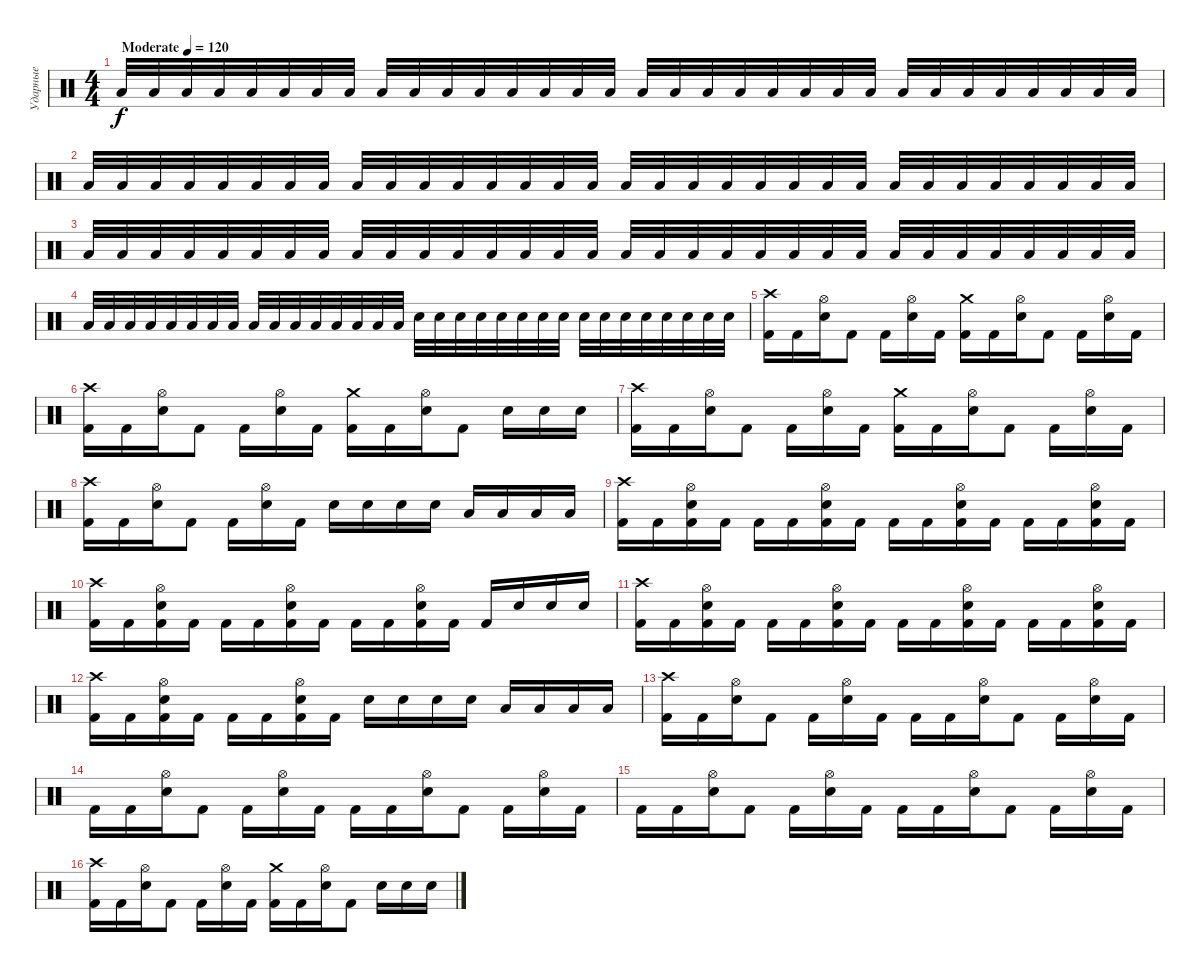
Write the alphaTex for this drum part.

\track ("Ударные" "Ударные") {instrument percussion}
\staff {score}
\articulation defaults
\ts (4 4)
\tempo (120 "Moderate")
\clef neutral
\ks c "Low Tom (hit)".32{dy f} "Low Tom (hit)".32 "Low Tom (hit)".32 "Low Tom (hit)".32 "Low Tom (hit)".32 "Low Tom (hit)".32 "Low Tom (hit)".32 "Low Tom (hit)".32 "Low Tom (hit)".32 "Low Tom (hit)".32 "Low Tom (hit)".32 "Low Tom (hit)".32 "Low Tom (hit)".32 "Low Tom (hit)".32 "Low Tom (hit)".32 "Low Tom (hit)".32 "Low Tom (hit)".32 "Low Tom (hit)".32 "Low Tom (hit)".32 "Low Tom (hit)".32 "Low Tom (hit)".32 "Low Tom (hit)".32 "Low Tom (hit)".32 "Low Tom (hit)".32 "Low Tom (hit)".32 "Low Tom (hit)".32 "Low Tom (hit)".32 "Low Tom (hit)".32 "Low Tom (hit)".32 "Low Tom (hit)".32 "Low Tom (hit)".32 "Low Tom (hit)".32
|
"Low Tom (hit)".32 "Low Tom (hit)".32 "Low Tom (hit)".32 "Low Tom (hit)".32 "Low Tom (hit)".32 "Low Tom (hit)".32 "Low Tom (hit)".32 "Low Tom (hit)".32 "Low Tom (hit)".32 "Low Tom (hit)".32 "Low Tom (hit)".32 "Low Tom (hit)".32 "Low Tom (hit)".32 "Low Tom (hit)".32 "Low Tom (hit)".32 "Low Tom (hit)".32 "Low Tom (hit)".32 "Low Tom (hit)".32 "Low Tom (hit)".32 "Low Tom (hit)".32 "Low Tom (hit)".32 "Low Tom (hit)".32 "Low Tom (hit)".32 "Low Tom (hit)".32 "Low Tom (hit)".32 "Low Tom (hit)".32 "Low Tom (hit)".32 "Low Tom (hit)".32 "Low Tom (hit)".32 "Low Tom (hit)".32 "Low Tom (hit)".32 "Low Tom (hit)".32 |
"Low Tom (hit)".32 "Low Tom (hit)".32 "Low Tom (hit)".32 "Low Tom (hit)".32 "Low Tom (hit)".32 "Low Tom (hit)".32 "Low Tom (hit)".32 "Low Tom (hit)".32 "Low Tom (hit)".32 "Low Tom (hit)".32 "Low Tom (hit)".32 "Low Tom (hit)".32 "Low Tom (hit)".32 "Low Tom (hit)".32 "Low Tom (hit)".32 "Low Tom (hit)".32 "Low Tom (hit)".32 "Low Tom (hit)".32 "Low Tom (hit)".32 "Low Tom (hit)".32 "Low Tom (hit)".32 "Low Tom (hit)".32 "Low Tom (hit)".32 "Low Tom (hit)".32 "Low Tom (hit)".32 "Low Tom (hit)".32 "Low Tom (hit)".32 "Low Tom (hit)".32 "Low Tom (hit)".32 "Low Tom (hit)".32 "Low Tom (hit)".32 "Low Tom (hit)".32 |
"Low Tom (hit)".32 "Low Tom (hit)".32 "Low Tom (hit)".32 "Low Tom (hit)".32 "Low Tom (hit)".32 "Low Tom (hit)".32 "Low Tom (hit)".32 "Low Tom (hit)".32 "Low Tom (hit)".32 "Low Tom (hit)".32 "Low Tom (hit)".32 "Low Tom (hit)".32 "Low Tom (hit)".32 "Low Tom (hit)".32 "Low Tom (hit)".32 "Low Tom (hit)".32 "Electric Snare (hit)".32 "Electric Snare (hit)".32 "Electric Snare (hit)".32 "Electric Snare (hit)".32 "Electric Snare (hit)".32 "Electric Snare (hit)".32 "Electric Snare (hit)".32 "Electric Snare (hit)".32 "Electric Snare (hit)".32 "Electric Snare (hit)".32 "Electric Snare (hit)".32 "Electric Snare (hit)".32 "Electric Snare (hit)".32 "Electric Snare (hit)".32 "Electric Snare (hit)".32 "Electric Snare (hit)".32 |
("Kick (hit) 2" "Crash high (hit)").16 "Kick (hit) 2".16 ("Electric Snare (hit)" "Hi-Hat (open)").16 "Kick (hit) 2".8 "Kick (hit) 2".16 ("Electric Snare (hit)" "Hi-Hat (open)").16 "Kick (hit) 2".16 ("Kick (hit) 2" "Crash medium (hit)").16 "Kick (hit) 2".16 ("Electric Snare (hit)" "Hi-Hat (open)").16 "Kick (hit) 2".8 "Kick (hit) 2".16 ("Electric Snare (hit)" "Hi-Hat (open)").16 "Kick (hit) 2".16 |
("Kick (hit) 2" "Crash high (hit)").16 "Kick (hit) 2".16 ("Electric Snare (hit)" "Hi-Hat (open)").16 "Kick (hit) 2".8 "Kick (hit) 2".16 ("Electric Snare (hit)" "Hi-Hat (open)").16 "Kick (hit) 2".16 ("Kick (hit) 2" "Crash medium (hit)").16 "Kick (hit) 2".16 ("Electric Snare (hit)" "Hi-Hat (open)").16 "Kick (hit) 2".8 "Electric Snare (hit)".16 "Electric Snare (hit)".16 "Electric Snare (hit)".16 |
("Kick (hit) 2" "Crash high (hit)").16 "Kick (hit) 2".16 ("Electric Snare (hit)" "Hi-Hat (open)").16 "Kick (hit) 2".8 "Kick (hit) 2".16 ("Electric Snare (hit)" "Hi-Hat (open)").16 "Kick (hit) 2".16 ("Kick (hit) 2" "Crash medium (hit)").16 "Kick (hit) 2".16 ("Electric Snare (hit)" "Hi-Hat (open)").16 "Kick (hit) 2".8 "Kick (hit) 2".16 ("Electric Snare (hit)" "Hi-Hat (open)").16 "Kick (hit) 2".16 |
("Kick (hit) 2" "Crash high (hit)").16 "Kick (hit) 2".16 ("Electric Snare (hit)" "Hi-Hat (open)").16 "Kick (hit) 2".8 "Kick (hit) 2".16 ("Electric Snare (hit)" "Hi-Hat (open)").16 "Kick (hit) 2".16 "Electric Snare (hit)".16 "Electric Snare (hit)".16 "Electric Snare (hit)".16 "Electric Snare (hit)".16 "Low Tom (hit)".16 "Low Tom (hit)".16 "Low Tom (hit)".16 "Low Tom (hit)".16 |
("Kick (hit) 2" "Crash high (hit)").16 "Kick (hit) 2".16 ("Kick (hit) 2" "Electric Snare (hit)" "Hi-Hat (open)").16 "Kick (hit) 2".16 "Kick (hit) 2".16 "Kick (hit) 2".16 ("Kick (hit) 2" "Electric Snare (hit)" "Hi-Hat (open)").16 "Kick (hit) 2".16 "Kick (hit) 2".16 "Kick (hit) 2".16 ("Kick (hit) 2" "Electric Snare (hit)" "Hi-Hat (open)").16 "Kick (hit) 2".16 "Kick (hit) 2".16 "Kick (hit) 2".16 ("Kick (hit) 2" "Electric Snare (hit)" "Hi-Hat (open)").16 "Kick (hit) 2".16 |
("Kick (hit) 2" "Crash high (hit)").16 "Kick (hit) 2".16 ("Kick (hit) 2" "Electric Snare (hit)" "Hi-Hat (open)").16 "Kick (hit) 2".16 "Kick (hit) 2".16 "Kick (hit) 2".16 ("Kick (hit) 2" "Electric Snare (hit)" "Hi-Hat (open)").16 "Kick (hit) 2".16 "Kick (hit) 2".16 "Kick (hit) 2".16 ("Kick (hit) 2" "Electric Snare (hit)" "Hi-Hat (open)").16 "Kick (hit) 2".16 "Kick (hit) 2".16 "Electric Snare (hit)".16 "Electric Snare (hit)".16 "Electric Snare (hit)".16 |
("Kick (hit) 2" "Crash high (hit)").16 "Kick (hit) 2".16 ("Kick (hit) 2" "Electric Snare (hit)" "Hi-Hat (open)").16 "Kick (hit) 2".16 "Kick (hit) 2".16 "Kick (hit) 2".16 ("Kick (hit) 2" "Electric Snare (hit)" "Hi-Hat (open)").16 "Kick (hit) 2".16 "Kick (hit) 2".16 "Kick (hit) 2".16 ("Kick (hit) 2" "Electric Snare (hit)" "Hi-Hat (open)").16 "Kick (hit) 2".16 "Kick (hit) 2".16 "Kick (hit) 2".16 ("Kick (hit) 2" "Electric Snare (hit)" "Hi-Hat (open)").16 "Kick (hit) 2".16 |
("Kick (hit) 2" "Crash high (hit)").16 "Kick (hit) 2".16 ("Kick (hit) 2" "Electric Snare (hit)" "Hi-Hat (open)").16 "Kick (hit) 2".16 "Kick (hit) 2".16 "Kick (hit) 2".16 ("Kick (hit) 2" "Electric Snare (hit)" "Hi-Hat (open)").16 "Kick (hit) 2".16 "Electric Snare (hit)".16 "Electric Snare (hit)".16 "Electric Snare (hit)".16 "Electric Snare (hit)".16 "Low Tom (hit)".16 "Low Tom (hit)".16 "Low Tom (hit)".16 "Low Tom (hit)".16 |
("Kick (hit) 2" "Crash high (hit)").16 "Kick (hit) 2".16 ("Electric Snare (hit)" "Hi-Hat (open)").16 "Kick (hit) 2".8 "Kick (hit) 2".16 ("Electric Snare (hit)" "Hi-Hat (open)").16 "Kick (hit) 2".16 "Kick (hit) 2".16 "Kick (hit) 2".16 ("Electric Snare (hit)" "Hi-Hat (open)").16 "Kick (hit) 2".8 "Kick (hit) 2".16 ("Electric Snare (hit)" "Hi-Hat (open)").16 "Kick (hit) 2".16 |
"Kick (hit) 2".16 "Kick (hit) 2".16 ("Electric Snare (hit)" "Hi-Hat (open)").16 "Kick (hit) 2".8 "Kick (hit) 2".16 ("Electric Snare (hit)" "Hi-Hat (open)").16 "Kick (hit) 2".16 "Kick (hit) 2".16 "Kick (hit) 2".16 ("Electric Snare (hit)" "Hi-Hat (open)").16 "Kick (hit) 2".8 "Kick (hit) 2".16 ("Electric Snare (hit)" "Hi-Hat (open)").16 "Kick (hit) 2".16 |
"Kick (hit) 2".16 "Kick (hit) 2".16 ("Electric Snare (hit)" "Hi-Hat (open)").16 "Kick (hit) 2".8 "Kick (hit) 2".16 ("Electric Snare (hit)" "Hi-Hat (open)").16 "Kick (hit) 2".16 "Kick (hit) 2".16 "Kick (hit) 2".16 ("Electric Snare (hit)" "Hi-Hat (open)").16 "Kick (hit) 2".8 "Kick (hit) 2".16 ("Electric Snare (hit)" "Hi-Hat (open)").16 "Kick (hit) 2".16 |
("Kick (hit) 2" "Crash high (hit)").16 "Kick (hit) 2".16 ("Electric Snare (hit)" "Hi-Hat (open)").16 "Kick (hit) 2".8 "Kick (hit) 2".16 ("Electric Snare (hit)" "Hi-Hat (open)").16 "Kick (hit) 2".16 ("Kick (hit) 2" "Crash medium (hit)").16 "Kick (hit) 2".16 ("Electric Snare (hit)" "Hi-Hat (open)").16 "Kick (hit) 2".8 "Electric Snare (hit)".16 "Electric Snare (hit)".16 "Electric Snare (hit)".16
